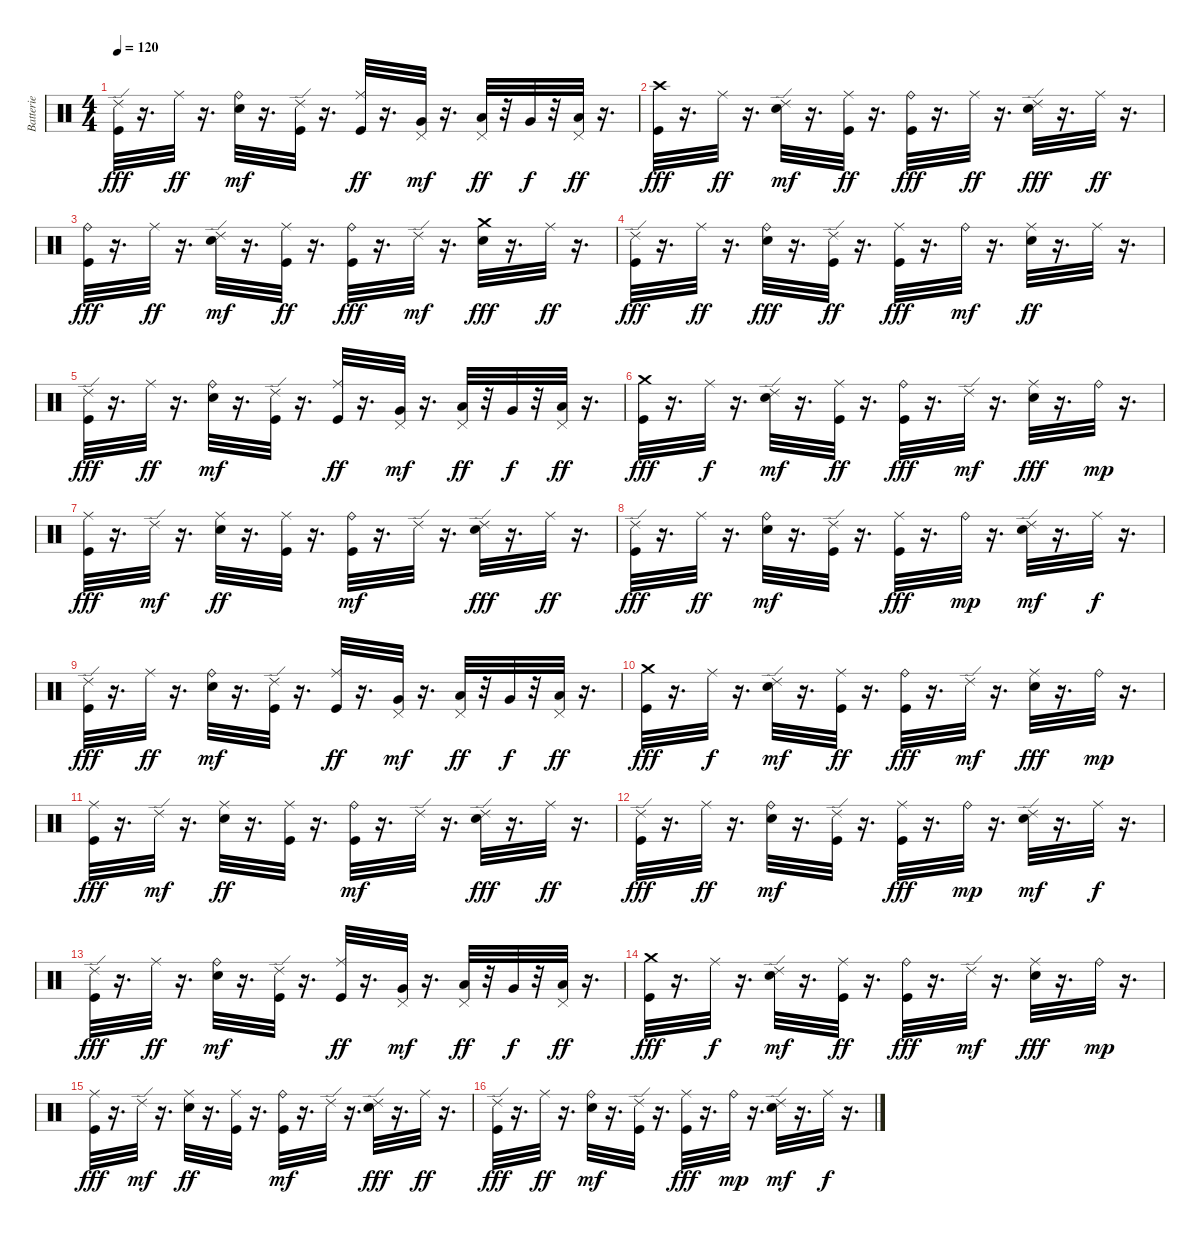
\track ("Batterie" "Batterie") {instrument percussion}
\staff {score}
\articulation defaults
\ts (4 4)
\tempo 120
\clef neutral
\ks c
("Kick (hit)" "Ride (edge) 2").32{dy fff} r.16{d} "Ride (middle)".32{dy ff} r.16{d} ("Electric Snare (hit)" "Ride (bell)").32{dy mf} r.16{d} ("Kick (hit)" "Ride (edge) 2").32 r.16{d} ("Kick (hit)" "Ride (middle)").32{dy ff} r.16{d} ("Very Low Tom (hit)" "Pedal Hi-Hat (hit)").32{dy mf} r.16{d} ("Pedal Hi-Hat (hit)" "Low Tom (hit)").32{dy ff} r.32 "Very Low Tom (hit)".32{dy f} r.32 ("Pedal Hi-Hat (hit)" "Low Floor Tom (hit)").32{dy ff} r.16{d} |
("Crash high (hit)" "Kick (hit)").32{dy fff} r.16{d} "Ride (middle)".32{dy ff} r.16{d} ("Electric Snare (hit)" "Ride (edge) 2").32{dy mf} r.16{d} ("Kick (hit)" "Ride (middle)").32{dy ff} r.16{d} ("Ride (bell)" "Kick (hit)").32{dy fff} r.16{d} "Ride (middle)".32{dy ff} r.16{d} ("Ride (edge) 2" "Electric Snare (hit)").32{dy fff} r.16{d} "Ride (middle)".32{dy ff} r.16{d} |
("Ride (bell)" "Kick (hit)").32{dy fff} r.16{d} "Ride (middle)".32{dy ff} r.16{d} ("Electric Snare (hit)" "Ride (edge) 2").32{dy mf} r.16{d} ("Kick (hit)" "Ride (middle)").32{dy ff} r.16{d} ("Ride (bell)" "Kick (hit)").32{dy fff} r.16{d} "Ride (edge) 2".32{dy mf} r.16{d} ("Crash medium (hit)" "Electric Snare (hit)").32{dy fff} r.16{d} "Ride (middle)".32{dy ff} r.16{d} |
("Ride (edge) 2" "Kick (hit)").32{dy fff} r.16{d} "Ride (middle)".32{dy ff} r.16{d} ("Ride (bell)" "Electric Snare (hit)").32{dy fff} r.16{d} ("Ride (edge) 2" "Kick (hit)").32{dy ff} r.16{d} ("Ride (middle)" "Kick (hit)").32{dy fff} r.16{d} "Ride (bell)".32{dy mf} r.16{d} ("Electric Snare (hit)" "Ride (middle)").32{dy ff} r.16{d} "Ride (middle)".32 r.16{d} |
("Kick (hit)" "Ride (edge) 2").32{dy fff} r.16{d} "Ride (middle)".32{dy ff} r.16{d} ("Electric Snare (hit)" "Ride (bell)").32{dy mf} r.16{d} ("Kick (hit)" "Ride (edge) 2").32 r.16{d} ("Kick (hit)" "Ride (middle)").32{dy ff} r.16{d} ("Very Low Tom (hit)" "Pedal Hi-Hat (hit)").32{dy mf} r.16{d} ("Pedal Hi-Hat (hit)" "Low Tom (hit)").32{dy ff} r.32 "Very Low Tom (hit)".32{dy f} r.32 ("Pedal Hi-Hat (hit)" "Low Floor Tom (hit)").32{dy ff} r.16{d} |
("Crash medium (hit)" "Kick (hit)").32{dy fff} r.16{d} "Ride (middle)".32{dy f} r.16{d} ("Electric Snare (hit)" "Ride (edge) 2").32{dy mf} r.16{d} ("Ride (middle)" "Kick (hit)").32{dy ff} r.16{d} ("Ride (bell)" "Kick (hit)").32{dy fff} r.16{d} "Ride (edge) 2".32{dy mf} r.16{d} ("Ride (middle)" "Electric Snare (hit)").32{dy fff} r.16{d} "Ride (bell)".32{dy mp} r.16{d} |
("Ride (middle)" "Kick (hit)").32{dy fff} r.16{d} "Ride (edge) 2".32{dy mf} r.16{d} ("Electric Snare (hit)" "Ride (middle)").32{dy ff} r.16{d} ("Kick (hit)" "Ride (middle)").32 r.16{d} ("Kick (hit)" "Ride (bell)").32{dy mf} r.16{d} "Ride (edge) 2".32 r.16{d} ("Ride (edge) 2" "Electric Snare (hit)").32{dy fff} r.16{d} "Ride (middle)".32{dy ff} r.16{d} |
("Ride (edge) 2" "Kick (hit)").32{dy fff} r.16{d} "Ride (middle)".32{dy ff} r.16{d} ("Electric Snare (hit)" "Ride (bell)").32{dy mf} r.16{d} ("Kick (hit)" "Ride (edge) 2").32 r.16{d} ("Kick (hit)" "Ride (middle)").32{dy fff} r.16{d} "Ride (bell)".32{dy mp} r.16{d} ("Electric Snare (hit)" "Ride (edge) 2").32{dy mf} r.16{d} "Ride (middle)".32{dy f} r.16{d} |
("Kick (hit)" "Ride (edge) 2").32{dy fff} r.16{d} "Ride (middle)".32{dy ff} r.16{d} ("Electric Snare (hit)" "Ride (bell)").32{dy mf} r.16{d} ("Kick (hit)" "Ride (edge) 2").32 r.16{d} ("Kick (hit)" "Ride (middle)").32{dy ff} r.16{d} ("Very Low Tom (hit)" "Pedal Hi-Hat (hit)").32{dy mf} r.16{d} ("Pedal Hi-Hat (hit)" "Low Tom (hit)").32{dy ff} r.32 "Very Low Tom (hit)".32{dy f} r.32 ("Pedal Hi-Hat (hit)" "Low Floor Tom (hit)").32{dy ff} r.16{d} |
("Crash medium (hit)" "Kick (hit)").32{dy fff} r.16{d} "Ride (middle)".32{dy f} r.16{d} ("Electric Snare (hit)" "Ride (edge) 2").32{dy mf} r.16{d} ("Ride (middle)" "Kick (hit)").32{dy ff} r.16{d} ("Ride (bell)" "Kick (hit)").32{dy fff} r.16{d} "Ride (edge) 2".32{dy mf} r.16{d} ("Ride (middle)" "Electric Snare (hit)").32{dy fff} r.16{d} "Ride (bell)".32{dy mp} r.16{d} |
("Ride (middle)" "Kick (hit)").32{dy fff} r.16{d} "Ride (edge) 2".32{dy mf} r.16{d} ("Electric Snare (hit)" "Ride (middle)").32{dy ff} r.16{d} ("Kick (hit)" "Ride (middle)").32 r.16{d} ("Kick (hit)" "Ride (bell)").32{dy mf} r.16{d} "Ride (edge) 2".32 r.16{d} ("Ride (edge) 2" "Electric Snare (hit)").32{dy fff} r.16{d} "Ride (middle)".32{dy ff} r.16{d} |
("Ride (edge) 2" "Kick (hit)").32{dy fff} r.16{d} "Ride (middle)".32{dy ff} r.16{d} ("Electric Snare (hit)" "Ride (bell)").32{dy mf} r.16{d} ("Kick (hit)" "Ride (edge) 2").32 r.16{d} ("Kick (hit)" "Ride (middle)").32{dy fff} r.16{d} "Ride (bell)".32{dy mp} r.16{d} ("Electric Snare (hit)" "Ride (edge) 2").32{dy mf} r.16{d} "Ride (middle)".32{dy f} r.16{d} |
("Kick (hit)" "Ride (edge) 2").32{dy fff} r.16{d} "Ride (middle)".32{dy ff} r.16{d} ("Electric Snare (hit)" "Ride (bell)").32{dy mf} r.16{d} ("Kick (hit)" "Ride (edge) 2").32 r.16{d} ("Kick (hit)" "Ride (middle)").32{dy ff} r.16{d} ("Very Low Tom (hit)" "Pedal Hi-Hat (hit)").32{dy mf} r.16{d} ("Pedal Hi-Hat (hit)" "Low Tom (hit)").32{dy ff} r.32 "Very Low Tom (hit)".32{dy f} r.32 ("Pedal Hi-Hat (hit)" "Low Floor Tom (hit)").32{dy ff} r.16{d} |
("Crash medium (hit)" "Kick (hit)").32{dy fff} r.16{d} "Ride (middle)".32{dy f} r.16{d} ("Electric Snare (hit)" "Ride (edge) 2").32{dy mf} r.16{d} ("Ride (middle)" "Kick (hit)").32{dy ff} r.16{d} ("Ride (bell)" "Kick (hit)").32{dy fff} r.16{d} "Ride (edge) 2".32{dy mf} r.16{d} ("Ride (middle)" "Electric Snare (hit)").32{dy fff} r.16{d} "Ride (bell)".32{dy mp} r.16{d} |
("Ride (middle)" "Kick (hit)").32{dy fff} r.16{d} "Ride (edge) 2".32{dy mf} r.16{d} ("Electric Snare (hit)" "Ride (middle)").32{dy ff} r.16{d} ("Kick (hit)" "Ride (middle)").32 r.16{d} ("Kick (hit)" "Ride (bell)").32{dy mf} r.16{d} "Ride (edge) 2".32 r.16{d} ("Ride (edge) 2" "Electric Snare (hit)").32{dy fff} r.16{d} "Ride (middle)".32{dy ff} r.16{d} |
("Ride (edge) 2" "Kick (hit)").32{dy fff} r.16{d} "Ride (middle)".32{dy ff} r.16{d} ("Electric Snare (hit)" "Ride (bell)").32{dy mf} r.16{d} ("Kick (hit)" "Ride (edge) 2").32 r.16{d} ("Kick (hit)" "Ride (middle)").32{dy fff} r.16{d} "Ride (bell)".32{dy mp} r.16{d} ("Electric Snare (hit)" "Ride (edge) 2").32{dy mf} r.16{d} "Ride (middle)".32{dy f} r.16{d}
